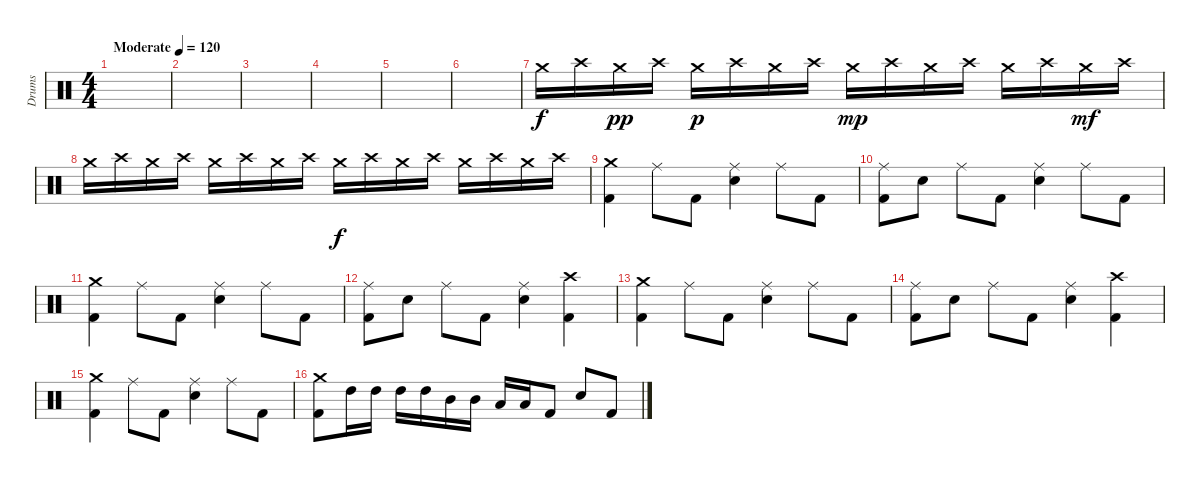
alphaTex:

\track ("Drums" "Drums") {instrument percussion}
\staff {score}
\articulation defaults
\ts (4 4)
\tempo (120 "Moderate")
\clef neutral
\ks c
|
|
|
|
|
|
"Crash medium (hit)".16 "Crash high (hit)".16 "Crash medium (hit)".16{dy pp} "Crash high (hit)".16 "Crash medium (hit)".16{dy p} "Crash high (hit)".16 "Crash medium (hit)".16 "Crash high (hit)".16 "Crash medium (hit)".16{dy mp} "Crash high (hit)".16 "Crash medium (hit)".16 "Crash high (hit)".16 "Crash medium (hit)".16 "Crash high (hit)".16 "Crash medium (hit)".16{dy mf} "Crash high (hit)".16 |
"Crash medium (hit)".16 "Crash high (hit)".16 "Crash medium (hit)".16 "Crash high (hit)".16 "Crash medium (hit)".16 "Crash high (hit)".16 "Crash medium (hit)".16 "Crash high (hit)".16 "Crash medium (hit)".16{dy f} "Crash high (hit)".16 "Crash medium (hit)".16 "Crash high (hit)".16 "Crash medium (hit)".16 "Crash high (hit)".16 "Crash medium (hit)".16 "Crash high (hit)".16 |
("Crash medium (hit)" "Kick (hit) 2").4 "Ride (middle)".8 "Kick (hit) 2".8 ("Ride (middle)" "Electric Snare (hit)").4 "Ride (middle)".8 "Kick (hit) 2".8 |
("Ride (middle)" "Kick (hit) 2").8 "Electric Snare (hit)".8 "Ride (middle)".8 "Kick (hit) 2".8 ("Ride (middle)" "Electric Snare (hit)").4 "Ride (middle)".8 "Kick (hit) 2".8 |
("Crash medium (hit)" "Kick (hit) 2").4 "Ride (middle)".8 "Kick (hit) 2".8 ("Ride (middle)" "Electric Snare (hit)").4 "Ride (middle)".8 "Kick (hit) 2".8 |
("Ride (middle)" "Kick (hit) 2").8 "Electric Snare (hit)".8 "Ride (middle)".8 "Kick (hit) 2".8 ("Ride (middle)" "Electric Snare (hit)").4 ("Crash high (hit)" "Kick (hit) 2").4 |
("Crash medium (hit)" "Kick (hit) 2").4 "Ride (middle)".8 "Kick (hit) 2".8 ("Ride (middle)" "Electric Snare (hit)").4 "Ride (middle)".8 "Kick (hit) 2".8 |
("Ride (middle)" "Kick (hit) 2").8 "Electric Snare (hit)".8 "Ride (middle)".8 "Kick (hit) 2".8 ("Ride (middle)" "Electric Snare (hit)").4 ("Crash high (hit)" "Kick (hit) 2").4 |
("Crash medium (hit)" "Kick (hit) 2").4 "Ride (middle)".8 "Kick (hit) 2".8 ("Ride (middle)" "Electric Snare (hit)").4 "Ride (middle)".8 "Kick (hit) 2".8 |
("Crash medium (hit)" "Kick (hit) 2").8 "High Tom (hit)".16 "High Tom (hit)".16 "High Tom (hit)".16 "High Tom (hit)".16 "Mid Tom (hit)".16 "Mid Tom (hit)".16 "Low Tom (hit)".16 "Low Tom (hit)".16 "Kick (hit) 2".8 "Electric Snare (hit)".8 "Kick (hit) 2".8
